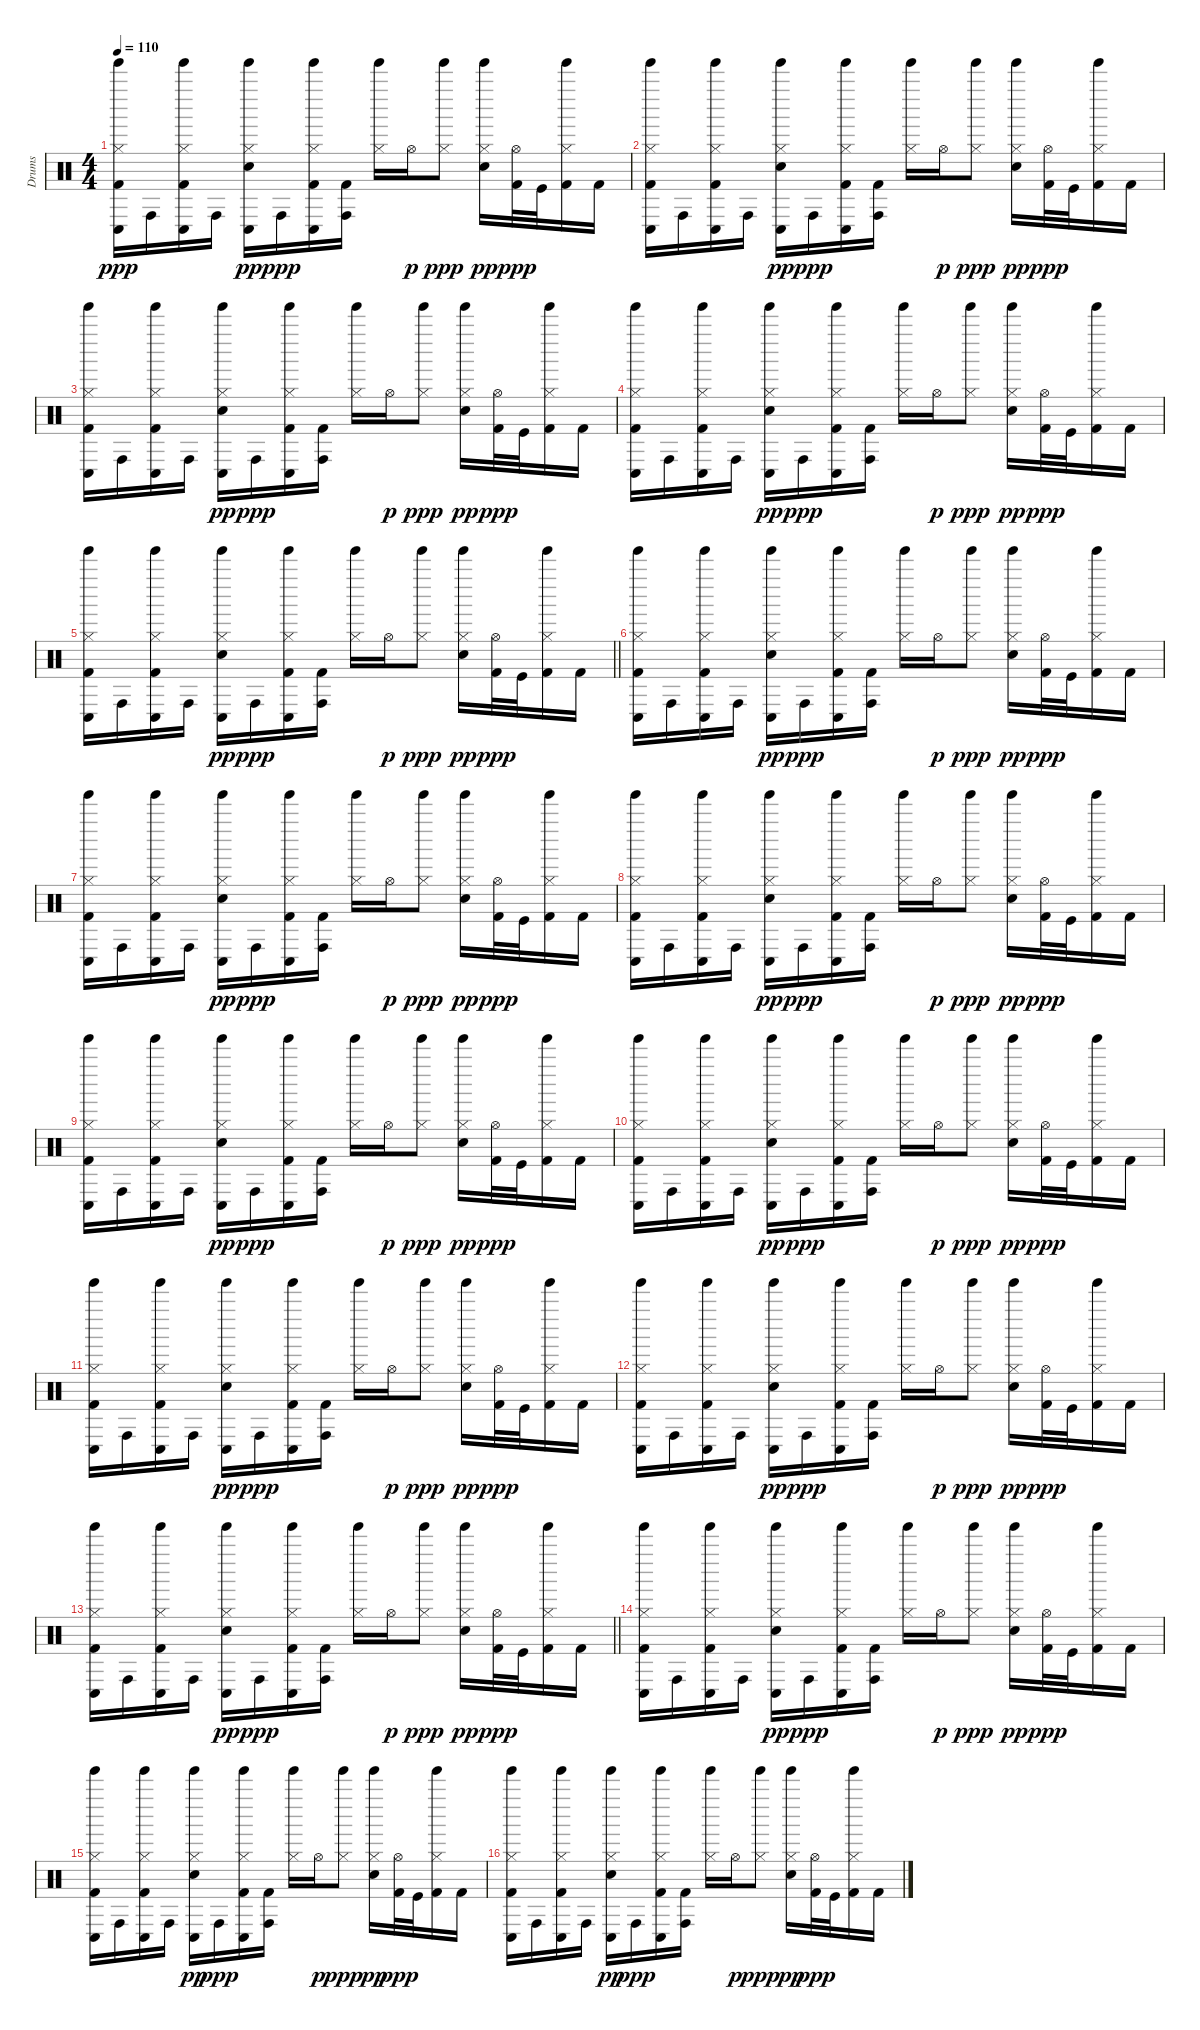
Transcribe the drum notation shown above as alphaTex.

\track ("Drums" "Drums") {instrument percussion}
\staff {score}
\articulation defaults
\ts (4 4)
\tempo 110
\clef neutral
\ks c
("Tinkle Bell (hit)" "Conga low (hit)" "Hi-Hat (closed)" "Kick (hit) 2").16{dy ppp} "Conga high (hit)".16 ("Tinkle Bell (hit)" "Conga low (hit)" "Hi-Hat (closed)" "Kick (hit) 2").16 "Conga high (hit)".16 ("Tinkle Bell (hit)" "Conga low (hit)" "Hi-Hat (closed)" "Snare (hit) 2").16{dy pp} "Conga high (hit)".16{dy ppp} ("Tinkle Bell (hit)" "Conga low (hit)" "Hi-Hat (closed)" "Kick (hit) 2").16 ("Conga high (hit)" "Kick (hit) 2").16 ("Tinkle Bell (hit)" "Hi-Hat (closed)").16 "Hi-Hat (open)".16{dy p} ("Tinkle Bell (hit)" "Hi-Hat (closed)").8{dy ppp} ("Tinkle Bell (hit)" "Hi-Hat (closed)" "Snare (hit) 2").16{dy pp} ("Hi-Hat (open)" "Kick (hit) 2").32{dy ppp} "Kick (hit)".32 ("Tinkle Bell (hit)" "Hi-Hat (closed)" "Kick (hit) 2").16 "Kick (hit) 2".16 |
("Tinkle Bell (hit)" "Conga low (hit)" "Hi-Hat (closed)" "Kick (hit) 2").16 "Conga high (hit)".16 ("Tinkle Bell (hit)" "Conga low (hit)" "Hi-Hat (closed)" "Kick (hit) 2").16 "Conga high (hit)".16 ("Tinkle Bell (hit)" "Conga low (hit)" "Hi-Hat (closed)" "Snare (hit) 2").16{dy pp} "Conga high (hit)".16{dy ppp} ("Tinkle Bell (hit)" "Conga low (hit)" "Hi-Hat (closed)" "Kick (hit) 2").16 ("Conga high (hit)" "Kick (hit) 2").16 ("Tinkle Bell (hit)" "Hi-Hat (closed)").16 "Hi-Hat (open)".16{dy p} ("Tinkle Bell (hit)" "Hi-Hat (closed)").8{dy ppp} ("Tinkle Bell (hit)" "Hi-Hat (closed)" "Snare (hit) 2").16{dy pp} ("Hi-Hat (open)" "Kick (hit) 2").32{dy ppp} "Kick (hit)".32 ("Tinkle Bell (hit)" "Hi-Hat (closed)" "Kick (hit) 2").16 "Kick (hit) 2".16 |
("Tinkle Bell (hit)" "Conga low (hit)" "Hi-Hat (closed)" "Kick (hit) 2").16 "Conga high (hit)".16 ("Tinkle Bell (hit)" "Conga low (hit)" "Hi-Hat (closed)" "Kick (hit) 2").16 "Conga high (hit)".16 ("Tinkle Bell (hit)" "Conga low (hit)" "Hi-Hat (closed)" "Snare (hit) 2").16{dy pp} "Conga high (hit)".16{dy ppp} ("Tinkle Bell (hit)" "Conga low (hit)" "Hi-Hat (closed)" "Kick (hit) 2").16 ("Conga high (hit)" "Kick (hit) 2").16 ("Tinkle Bell (hit)" "Hi-Hat (closed)").16 "Hi-Hat (open)".16{dy p} ("Tinkle Bell (hit)" "Hi-Hat (closed)").8{dy ppp} ("Tinkle Bell (hit)" "Hi-Hat (closed)" "Snare (hit) 2").16{dy pp} ("Hi-Hat (open)" "Kick (hit) 2").32{dy ppp} "Kick (hit)".32 ("Tinkle Bell (hit)" "Hi-Hat (closed)" "Kick (hit) 2").16 "Kick (hit) 2".16 |
("Tinkle Bell (hit)" "Conga low (hit)" "Hi-Hat (closed)" "Kick (hit) 2").16 "Conga high (hit)".16 ("Tinkle Bell (hit)" "Conga low (hit)" "Hi-Hat (closed)" "Kick (hit) 2").16 "Conga high (hit)".16 ("Tinkle Bell (hit)" "Conga low (hit)" "Hi-Hat (closed)" "Snare (hit) 2").16{dy pp} "Conga high (hit)".16{dy ppp} ("Tinkle Bell (hit)" "Conga low (hit)" "Hi-Hat (closed)" "Kick (hit) 2").16 ("Conga high (hit)" "Kick (hit) 2").16 ("Tinkle Bell (hit)" "Hi-Hat (closed)").16 "Hi-Hat (open)".16{dy p} ("Tinkle Bell (hit)" "Hi-Hat (closed)").8{dy ppp} ("Tinkle Bell (hit)" "Hi-Hat (closed)" "Snare (hit) 2").16{dy pp} ("Hi-Hat (open)" "Kick (hit) 2").32{dy ppp} "Kick (hit)".32 ("Tinkle Bell (hit)" "Hi-Hat (closed)" "Kick (hit) 2").16 "Kick (hit) 2".16 |
\barLineRight lightlight
("Tinkle Bell (hit)" "Conga low (hit)" "Hi-Hat (closed)" "Kick (hit) 2").16 "Conga high (hit)".16 ("Tinkle Bell (hit)" "Conga low (hit)" "Hi-Hat (closed)" "Kick (hit) 2").16 "Conga high (hit)".16 ("Tinkle Bell (hit)" "Conga low (hit)" "Hi-Hat (closed)" "Snare (hit) 2").16{dy pp} "Conga high (hit)".16{dy ppp} ("Tinkle Bell (hit)" "Conga low (hit)" "Hi-Hat (closed)" "Kick (hit) 2").16 ("Conga high (hit)" "Kick (hit) 2").16 ("Tinkle Bell (hit)" "Hi-Hat (closed)").16 "Hi-Hat (open)".16{dy p} ("Tinkle Bell (hit)" "Hi-Hat (closed)").8{dy ppp} ("Tinkle Bell (hit)" "Hi-Hat (closed)" "Snare (hit) 2").16{dy pp} ("Hi-Hat (open)" "Kick (hit) 2").32{dy ppp} "Kick (hit)".32 ("Tinkle Bell (hit)" "Hi-Hat (closed)" "Kick (hit) 2").16 "Kick (hit) 2".16 |
("Tinkle Bell (hit)" "Conga low (hit)" "Hi-Hat (closed)" "Kick (hit) 2").16 "Conga high (hit)".16 ("Tinkle Bell (hit)" "Conga low (hit)" "Hi-Hat (closed)" "Kick (hit) 2").16 "Conga high (hit)".16 ("Tinkle Bell (hit)" "Conga low (hit)" "Hi-Hat (closed)" "Snare (hit) 2").16{dy pp} "Conga high (hit)".16{dy ppp} ("Tinkle Bell (hit)" "Conga low (hit)" "Hi-Hat (closed)" "Kick (hit) 2").16 ("Conga high (hit)" "Kick (hit) 2").16 ("Tinkle Bell (hit)" "Hi-Hat (closed)").16 "Hi-Hat (open)".16{dy p} ("Tinkle Bell (hit)" "Hi-Hat (closed)").8{dy ppp} ("Tinkle Bell (hit)" "Hi-Hat (closed)" "Snare (hit) 2").16{dy pp} ("Hi-Hat (open)" "Kick (hit) 2").32{dy ppp} "Kick (hit)".32 ("Tinkle Bell (hit)" "Hi-Hat (closed)" "Kick (hit) 2").16 "Kick (hit) 2".16 |
("Tinkle Bell (hit)" "Conga low (hit)" "Hi-Hat (closed)" "Kick (hit) 2").16 "Conga high (hit)".16 ("Tinkle Bell (hit)" "Conga low (hit)" "Hi-Hat (closed)" "Kick (hit) 2").16 "Conga high (hit)".16 ("Tinkle Bell (hit)" "Conga low (hit)" "Hi-Hat (closed)" "Snare (hit) 2").16{dy pp} "Conga high (hit)".16{dy ppp} ("Tinkle Bell (hit)" "Conga low (hit)" "Hi-Hat (closed)" "Kick (hit) 2").16 ("Conga high (hit)" "Kick (hit) 2").16 ("Tinkle Bell (hit)" "Hi-Hat (closed)").16 "Hi-Hat (open)".16{dy p} ("Tinkle Bell (hit)" "Hi-Hat (closed)").8{dy ppp} ("Tinkle Bell (hit)" "Hi-Hat (closed)" "Snare (hit) 2").16{dy pp} ("Hi-Hat (open)" "Kick (hit) 2").32{dy ppp} "Kick (hit)".32 ("Tinkle Bell (hit)" "Hi-Hat (closed)" "Kick (hit) 2").16 "Kick (hit) 2".16 |
("Tinkle Bell (hit)" "Conga low (hit)" "Hi-Hat (closed)" "Kick (hit) 2").16 "Conga high (hit)".16 ("Tinkle Bell (hit)" "Conga low (hit)" "Hi-Hat (closed)" "Kick (hit) 2").16 "Conga high (hit)".16 ("Tinkle Bell (hit)" "Conga low (hit)" "Hi-Hat (closed)" "Snare (hit) 2").16{dy pp} "Conga high (hit)".16{dy ppp} ("Tinkle Bell (hit)" "Conga low (hit)" "Hi-Hat (closed)" "Kick (hit) 2").16 ("Conga high (hit)" "Kick (hit) 2").16 ("Tinkle Bell (hit)" "Hi-Hat (closed)").16 "Hi-Hat (open)".16{dy p} ("Tinkle Bell (hit)" "Hi-Hat (closed)").8{dy ppp} ("Tinkle Bell (hit)" "Hi-Hat (closed)" "Snare (hit) 2").16{dy pp} ("Hi-Hat (open)" "Kick (hit) 2").32{dy ppp} "Kick (hit)".32 ("Tinkle Bell (hit)" "Hi-Hat (closed)" "Kick (hit) 2").16 "Kick (hit) 2".16 |
("Tinkle Bell (hit)" "Conga low (hit)" "Hi-Hat (closed)" "Kick (hit) 2").16 "Conga high (hit)".16 ("Tinkle Bell (hit)" "Conga low (hit)" "Hi-Hat (closed)" "Kick (hit) 2").16 "Conga high (hit)".16 ("Tinkle Bell (hit)" "Conga low (hit)" "Hi-Hat (closed)" "Snare (hit) 2").16{dy pp} "Conga high (hit)".16{dy ppp} ("Tinkle Bell (hit)" "Conga low (hit)" "Hi-Hat (closed)" "Kick (hit) 2").16 ("Conga high (hit)" "Kick (hit) 2").16 ("Tinkle Bell (hit)" "Hi-Hat (closed)").16 "Hi-Hat (open)".16{dy p} ("Tinkle Bell (hit)" "Hi-Hat (closed)").8{dy ppp} ("Tinkle Bell (hit)" "Hi-Hat (closed)" "Snare (hit) 2").16{dy pp} ("Hi-Hat (open)" "Kick (hit) 2").32{dy ppp} "Kick (hit)".32 ("Tinkle Bell (hit)" "Hi-Hat (closed)" "Kick (hit) 2").16 "Kick (hit) 2".16 |
("Tinkle Bell (hit)" "Conga low (hit)" "Hi-Hat (closed)" "Kick (hit) 2").16 "Conga high (hit)".16 ("Tinkle Bell (hit)" "Conga low (hit)" "Hi-Hat (closed)" "Kick (hit) 2").16 "Conga high (hit)".16 ("Tinkle Bell (hit)" "Conga low (hit)" "Hi-Hat (closed)" "Snare (hit) 2").16{dy pp} "Conga high (hit)".16{dy ppp} ("Tinkle Bell (hit)" "Conga low (hit)" "Hi-Hat (closed)" "Kick (hit) 2").16 ("Conga high (hit)" "Kick (hit) 2").16 ("Tinkle Bell (hit)" "Hi-Hat (closed)").16 "Hi-Hat (open)".16{dy p} ("Tinkle Bell (hit)" "Hi-Hat (closed)").8{dy ppp} ("Tinkle Bell (hit)" "Hi-Hat (closed)" "Snare (hit) 2").16{dy pp} ("Hi-Hat (open)" "Kick (hit) 2").32{dy ppp} "Kick (hit)".32 ("Tinkle Bell (hit)" "Hi-Hat (closed)" "Kick (hit) 2").16 "Kick (hit) 2".16 |
("Tinkle Bell (hit)" "Conga low (hit)" "Hi-Hat (closed)" "Kick (hit) 2").16 "Conga high (hit)".16 ("Tinkle Bell (hit)" "Conga low (hit)" "Hi-Hat (closed)" "Kick (hit) 2").16 "Conga high (hit)".16 ("Tinkle Bell (hit)" "Conga low (hit)" "Hi-Hat (closed)" "Snare (hit) 2").16{dy pp} "Conga high (hit)".16{dy ppp} ("Tinkle Bell (hit)" "Conga low (hit)" "Hi-Hat (closed)" "Kick (hit) 2").16 ("Conga high (hit)" "Kick (hit) 2").16 ("Tinkle Bell (hit)" "Hi-Hat (closed)").16 "Hi-Hat (open)".16{dy p} ("Tinkle Bell (hit)" "Hi-Hat (closed)").8{dy ppp} ("Tinkle Bell (hit)" "Hi-Hat (closed)" "Snare (hit) 2").16{dy pp} ("Hi-Hat (open)" "Kick (hit) 2").32{dy ppp} "Kick (hit)".32 ("Tinkle Bell (hit)" "Hi-Hat (closed)" "Kick (hit) 2").16 "Kick (hit) 2".16 |
("Tinkle Bell (hit)" "Conga low (hit)" "Hi-Hat (closed)" "Kick (hit) 2").16 "Conga high (hit)".16 ("Tinkle Bell (hit)" "Conga low (hit)" "Hi-Hat (closed)" "Kick (hit) 2").16 "Conga high (hit)".16 ("Tinkle Bell (hit)" "Conga low (hit)" "Hi-Hat (closed)" "Snare (hit) 2").16{dy pp} "Conga high (hit)".16{dy ppp} ("Tinkle Bell (hit)" "Conga low (hit)" "Hi-Hat (closed)" "Kick (hit) 2").16 ("Conga high (hit)" "Kick (hit) 2").16 ("Tinkle Bell (hit)" "Hi-Hat (closed)").16 "Hi-Hat (open)".16{dy p} ("Tinkle Bell (hit)" "Hi-Hat (closed)").8{dy ppp} ("Tinkle Bell (hit)" "Hi-Hat (closed)" "Snare (hit) 2").16{dy pp} ("Hi-Hat (open)" "Kick (hit) 2").32{dy ppp} "Kick (hit)".32 ("Tinkle Bell (hit)" "Hi-Hat (closed)" "Kick (hit) 2").16 "Kick (hit) 2".16 |
\barLineRight lightlight
("Tinkle Bell (hit)" "Conga low (hit)" "Hi-Hat (closed)" "Kick (hit) 2").16 "Conga high (hit)".16 ("Tinkle Bell (hit)" "Conga low (hit)" "Hi-Hat (closed)" "Kick (hit) 2").16 "Conga high (hit)".16 ("Tinkle Bell (hit)" "Conga low (hit)" "Hi-Hat (closed)" "Snare (hit) 2").16{dy pp} "Conga high (hit)".16{dy ppp} ("Tinkle Bell (hit)" "Conga low (hit)" "Hi-Hat (closed)" "Kick (hit) 2").16 ("Conga high (hit)" "Kick (hit) 2").16 ("Tinkle Bell (hit)" "Hi-Hat (closed)").16 "Hi-Hat (open)".16{dy p} ("Tinkle Bell (hit)" "Hi-Hat (closed)").8{dy ppp} ("Tinkle Bell (hit)" "Hi-Hat (closed)" "Snare (hit) 2").16{dy pp} ("Hi-Hat (open)" "Kick (hit) 2").32{dy ppp} "Kick (hit)".32 ("Tinkle Bell (hit)" "Hi-Hat (closed)" "Kick (hit) 2").16 "Kick (hit) 2".16 |
("Tinkle Bell (hit)" "Conga low (hit)" "Hi-Hat (closed)" "Kick (hit) 2").16 "Conga high (hit)".16 ("Tinkle Bell (hit)" "Conga low (hit)" "Hi-Hat (closed)" "Kick (hit) 2").16 "Conga high (hit)".16 ("Tinkle Bell (hit)" "Conga low (hit)" "Hi-Hat (closed)" "Snare (hit) 2").16{dy pp} "Conga high (hit)".16{dy ppp} ("Tinkle Bell (hit)" "Conga low (hit)" "Hi-Hat (closed)" "Kick (hit) 2").16 ("Conga high (hit)" "Kick (hit) 2").16 ("Tinkle Bell (hit)" "Hi-Hat (closed)").16 "Hi-Hat (open)".16{dy p} ("Tinkle Bell (hit)" "Hi-Hat (closed)").8{dy ppp} ("Tinkle Bell (hit)" "Hi-Hat (closed)" "Snare (hit) 2").16{dy pp} ("Hi-Hat (open)" "Kick (hit) 2").32{dy ppp} "Kick (hit)".32 ("Tinkle Bell (hit)" "Hi-Hat (closed)" "Kick (hit) 2").16 "Kick (hit) 2".16 |
("Tinkle Bell (hit)" "Conga low (hit)" "Hi-Hat (closed)" "Kick (hit) 2").16 "Conga high (hit)".16 ("Tinkle Bell (hit)" "Conga low (hit)" "Hi-Hat (closed)" "Kick (hit) 2").16 "Conga high (hit)".16 ("Tinkle Bell (hit)" "Conga low (hit)" "Hi-Hat (closed)" "Snare (hit) 2").16{dy pp} "Conga high (hit)".16{dy ppp} ("Tinkle Bell (hit)" "Conga low (hit)" "Hi-Hat (closed)" "Kick (hit) 2").16 ("Conga high (hit)" "Kick (hit) 2").16 ("Tinkle Bell (hit)" "Hi-Hat (closed)").16 "Hi-Hat (open)".16{dy p} ("Tinkle Bell (hit)" "Hi-Hat (closed)").8{dy ppp} ("Tinkle Bell (hit)" "Hi-Hat (closed)" "Snare (hit) 2").16{dy pp} ("Hi-Hat (open)" "Kick (hit) 2").32{dy ppp} "Kick (hit)".32 ("Tinkle Bell (hit)" "Hi-Hat (closed)" "Kick (hit) 2").16 "Kick (hit) 2".16 |
("Tinkle Bell (hit)" "Conga low (hit)" "Hi-Hat (closed)" "Kick (hit) 2").16 "Conga high (hit)".16 ("Tinkle Bell (hit)" "Conga low (hit)" "Hi-Hat (closed)" "Kick (hit) 2").16 "Conga high (hit)".16 ("Tinkle Bell (hit)" "Conga low (hit)" "Hi-Hat (closed)" "Snare (hit) 2").16{dy pp} "Conga high (hit)".16{dy ppp} ("Tinkle Bell (hit)" "Conga low (hit)" "Hi-Hat (closed)" "Kick (hit) 2").16 ("Conga high (hit)" "Kick (hit) 2").16 ("Tinkle Bell (hit)" "Hi-Hat (closed)").16 "Hi-Hat (open)".16{dy p} ("Tinkle Bell (hit)" "Hi-Hat (closed)").8{dy ppp} ("Tinkle Bell (hit)" "Hi-Hat (closed)" "Snare (hit) 2").16{dy pp} ("Hi-Hat (open)" "Kick (hit) 2").32{dy ppp} "Kick (hit)".32 ("Tinkle Bell (hit)" "Hi-Hat (closed)" "Kick (hit) 2").16 "Kick (hit) 2".16
